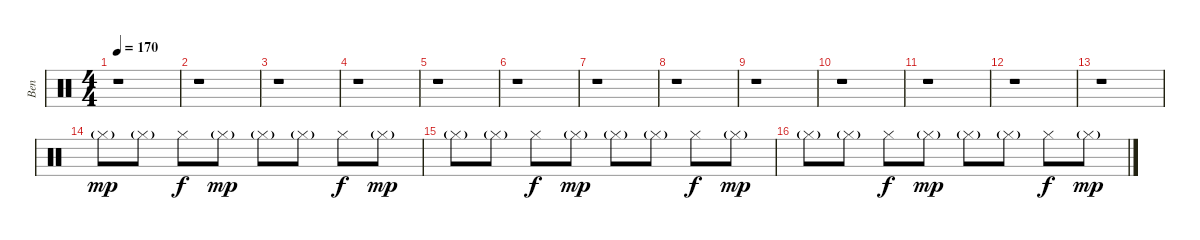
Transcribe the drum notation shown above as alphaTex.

\track ("Ben" "Ben") {instrument percussion}
\staff {score}
\articulation defaults
\ts (4 4)
\tempo 170
\clef neutral
\ks c
r.1{dy mp} |
r.1 |
r.1 |
r.1 |
r.1 |
r.1 |
r.1 |
r.1 |
r.1 |
r.1 |
r.1 |
r.1 |
r.1 |
"Hi-Hat (closed)"{g}.8 "Hi-Hat (closed)"{g}.8 "Hi-Hat (closed)".8{dy f} "Hi-Hat (closed)"{g}.8{dy mp} "Hi-Hat (closed)"{g}.8 "Hi-Hat (closed)"{g}.8 "Hi-Hat (closed)".8{dy f} "Hi-Hat (closed)"{g}.8{dy mp} |
"Hi-Hat (closed)"{g}.8 "Hi-Hat (closed)"{g}.8 "Hi-Hat (closed)".8{dy f} "Hi-Hat (closed)"{g}.8{dy mp} "Hi-Hat (closed)"{g}.8 "Hi-Hat (closed)"{g}.8 "Hi-Hat (closed)".8{dy f} "Hi-Hat (closed)"{g}.8{dy mp} |
"Hi-Hat (closed)"{g}.8 "Hi-Hat (closed)"{g}.8 "Hi-Hat (closed)".8{dy f} "Hi-Hat (closed)"{g}.8{dy mp} "Hi-Hat (closed)"{g}.8 "Hi-Hat (closed)"{g}.8 "Hi-Hat (closed)".8{dy f} "Hi-Hat (closed)"{g}.8{dy mp}
